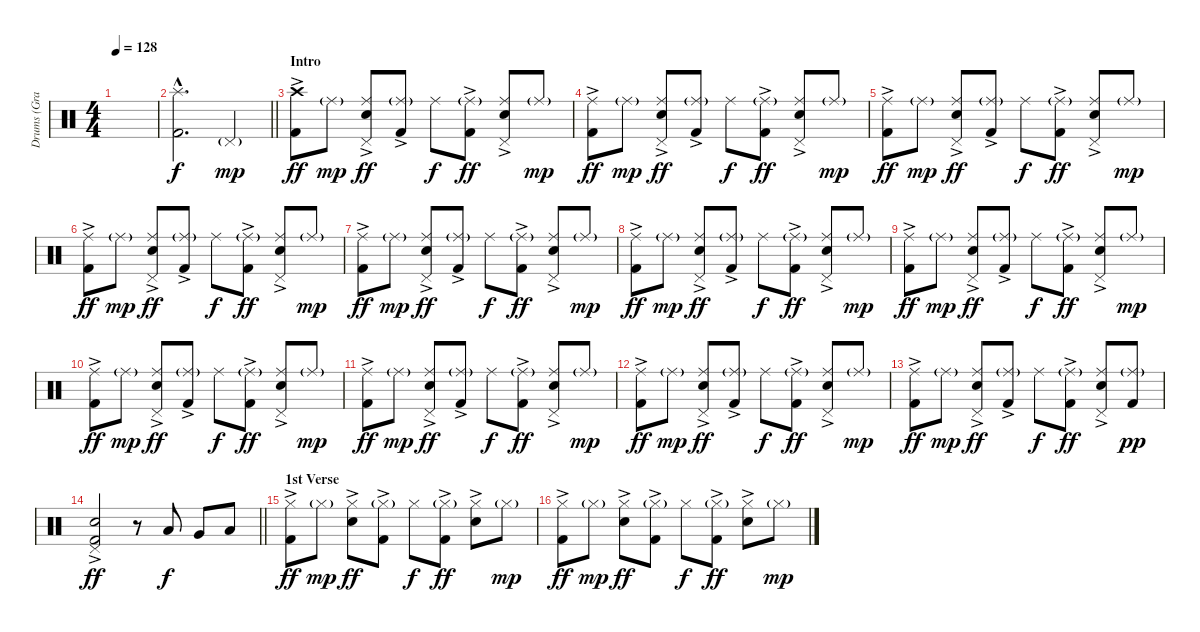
\track ("Drums (Graham)" "Drums (Gra") {instrument percussion}
\staff {score}
\articulation defaults
\ts (4 4)
\tempo 128
\clef neutral
\ks c
|
\barLineRight lightlight
("Splash (hit)"{hac} "Kick (hit) 2"{hac}).2{d} "Pedal Hi-Hat (hit)"{g}.4{dy mp} |
\section ("" "Intro")
("Crash high (hit)" "Kick (hit) 2"{ac}).8{dy ff} "Ride (middle)"{g}.8{dy mp} ("Ride (middle)" "Pedal Hi-Hat (hit)" "Snare (hit) 2"{ac}).8{dy ff} ("Ride (middle)"{g} "Kick (hit) 2"{ac}).8 "Ride (middle)".8{dy f} ("Ride (middle)"{g} "Kick (hit) 2"{ac}).8{dy ff} ("Ride (middle)" "Pedal Hi-Hat (hit)" "Snare (hit) 2"{ac}).8 "Ride (middle)"{g}.8{dy mp} |
("Ride (middle)" "Kick (hit) 2"{ac}).8{dy ff} "Ride (middle)"{g}.8{dy mp} ("Ride (middle)" "Pedal Hi-Hat (hit)" "Snare (hit) 2"{ac}).8{dy ff} ("Ride (middle)"{g} "Kick (hit) 2"{ac}).8 "Ride (middle)".8{dy f} ("Ride (middle)"{g} "Kick (hit) 2"{ac}).8{dy ff} ("Ride (middle)" "Pedal Hi-Hat (hit)" "Snare (hit) 2"{ac}).8 "Ride (middle)"{g}.8{dy mp} |
("Ride (middle)" "Kick (hit) 2"{ac}).8{dy ff} "Ride (middle)"{g}.8{dy mp} ("Ride (middle)" "Pedal Hi-Hat (hit)" "Snare (hit) 2"{ac}).8{dy ff} ("Ride (middle)"{g} "Kick (hit) 2"{ac}).8 "Ride (middle)".8{dy f} ("Ride (middle)"{g} "Kick (hit) 2"{ac}).8{dy ff} ("Ride (middle)" "Pedal Hi-Hat (hit)" "Snare (hit) 2"{ac}).8 "Ride (middle)"{g}.8{dy mp} |
("Ride (middle)" "Kick (hit) 2"{ac}).8{dy ff} "Ride (middle)"{g}.8{dy mp} ("Ride (middle)" "Pedal Hi-Hat (hit)" "Snare (hit) 2"{ac}).8{dy ff} ("Ride (middle)"{g} "Kick (hit) 2"{ac}).8 "Ride (middle)".8{dy f} ("Ride (middle)"{g} "Kick (hit) 2"{ac}).8{dy ff} ("Ride (middle)" "Pedal Hi-Hat (hit)" "Snare (hit) 2"{ac}).8 "Ride (middle)"{g}.8{dy mp} |
("Ride (middle)" "Kick (hit) 2"{ac}).8{dy ff} "Ride (middle)"{g}.8{dy mp} ("Ride (middle)" "Pedal Hi-Hat (hit)" "Snare (hit) 2"{ac}).8{dy ff} ("Ride (middle)"{g} "Kick (hit) 2"{ac}).8 "Ride (middle)".8{dy f} ("Ride (middle)"{g} "Kick (hit) 2"{ac}).8{dy ff} ("Ride (middle)" "Pedal Hi-Hat (hit)" "Snare (hit) 2"{ac}).8 "Ride (middle)"{g}.8{dy mp} |
("Ride (middle)" "Kick (hit) 2"{ac}).8{dy ff} "Ride (middle)"{g}.8{dy mp} ("Ride (middle)" "Pedal Hi-Hat (hit)" "Snare (hit) 2"{ac}).8{dy ff} ("Ride (middle)"{g} "Kick (hit) 2"{ac}).8 "Ride (middle)".8{dy f} ("Ride (middle)"{g} "Kick (hit) 2"{ac}).8{dy ff} ("Ride (middle)" "Pedal Hi-Hat (hit)" "Snare (hit) 2"{ac}).8 "Ride (middle)"{g}.8{dy mp} |
("Ride (middle)" "Kick (hit) 2"{ac}).8{dy ff} "Ride (middle)"{g}.8{dy mp} ("Ride (middle)" "Pedal Hi-Hat (hit)" "Snare (hit) 2"{ac}).8{dy ff} ("Ride (middle)"{g} "Kick (hit) 2"{ac}).8 "Ride (middle)".8{dy f} ("Ride (middle)"{g} "Kick (hit) 2"{ac}).8{dy ff} ("Ride (middle)" "Pedal Hi-Hat (hit)" "Snare (hit) 2"{ac}).8 "Ride (middle)"{g}.8{dy mp} |
("Ride (middle)" "Kick (hit) 2"{ac}).8{dy ff} "Ride (middle)"{g}.8{dy mp} ("Ride (middle)" "Pedal Hi-Hat (hit)" "Snare (hit) 2"{ac}).8{dy ff} ("Ride (middle)"{g} "Kick (hit) 2"{ac}).8 "Ride (middle)".8{dy f} ("Ride (middle)"{g} "Kick (hit) 2"{ac}).8{dy ff} ("Ride (middle)" "Pedal Hi-Hat (hit)" "Snare (hit) 2"{ac}).8 "Ride (middle)"{g}.8{dy mp} |
("Ride (middle)" "Kick (hit) 2"{ac}).8{dy ff} "Ride (middle)"{g}.8{dy mp} ("Ride (middle)" "Pedal Hi-Hat (hit)" "Snare (hit) 2"{ac}).8{dy ff} ("Ride (middle)"{g} "Kick (hit) 2"{ac}).8 "Ride (middle)".8{dy f} ("Ride (middle)"{g} "Kick (hit) 2"{ac}).8{dy ff} ("Ride (middle)" "Pedal Hi-Hat (hit)" "Snare (hit) 2"{ac}).8 "Ride (middle)"{g}.8{dy mp} |
("Ride (middle)" "Kick (hit) 2"{ac}).8{dy ff} "Ride (middle)"{g}.8{dy mp} ("Ride (middle)" "Pedal Hi-Hat (hit)" "Snare (hit) 2"{ac}).8{dy ff} ("Ride (middle)"{g} "Kick (hit) 2"{ac}).8 "Ride (middle)".8{dy f} ("Ride (middle)"{g} "Kick (hit) 2"{ac}).8{dy ff} ("Ride (middle)" "Pedal Hi-Hat (hit)" "Snare (hit) 2"{ac}).8 "Ride (middle)"{g}.8{dy mp} |
("Ride (middle)" "Kick (hit) 2"{ac}).8{dy ff} "Ride (middle)"{g}.8{dy mp} ("Ride (middle)" "Pedal Hi-Hat (hit)" "Snare (hit) 2"{ac}).8{dy ff} ("Ride (middle)"{g} "Kick (hit) 2"{ac}).8 "Ride (middle)".8{dy f} ("Ride (middle)"{g} "Kick (hit) 2"{ac}).8{dy ff} ("Ride (middle)" "Pedal Hi-Hat (hit)" "Snare (hit) 2"{ac}).8 ("Ride (middle)"{g} "Kick (hit) 2").8{dy pp} |
\barLineRight lightlight
("Pedal Hi-Hat (hit)" "Snare (hit) 2" "Kick (hit) 2"{ac}).2{dy ff} r.8 "Low Tom (hit)".8{dy f} "Very Low Tom (hit)".8 "Low Floor Tom (hit)".8 |
\section ("" "1st Verse")
("Hi-Hat (closed)" "Kick (hit) 2"{ac}).8{dy ff} "Hi-Hat (closed)"{g}.8{dy mp} ("Hi-Hat (closed)" "Snare (hit) 2"{ac}).8{dy ff} ("Hi-Hat (closed)"{g} "Kick (hit) 2"{ac}).8 "Hi-Hat (closed)".8{dy f} ("Hi-Hat (closed)"{g} "Kick (hit) 2"{ac}).8{dy ff} ("Hi-Hat (closed)" "Snare (hit) 2"{ac}).8 "Hi-Hat (closed)"{g}.8{dy mp} |
("Hi-Hat (closed)" "Kick (hit) 2"{ac}).8{dy ff} "Hi-Hat (closed)"{g}.8{dy mp} ("Hi-Hat (closed)" "Snare (hit) 2"{ac}).8{dy ff} ("Hi-Hat (closed)"{g} "Kick (hit) 2"{ac}).8 "Hi-Hat (closed)".8{dy f} ("Hi-Hat (closed)"{g} "Kick (hit) 2"{ac}).8{dy ff} ("Hi-Hat (closed)" "Snare (hit) 2"{ac}).8 "Hi-Hat (closed)"{g}.8{dy mp}
